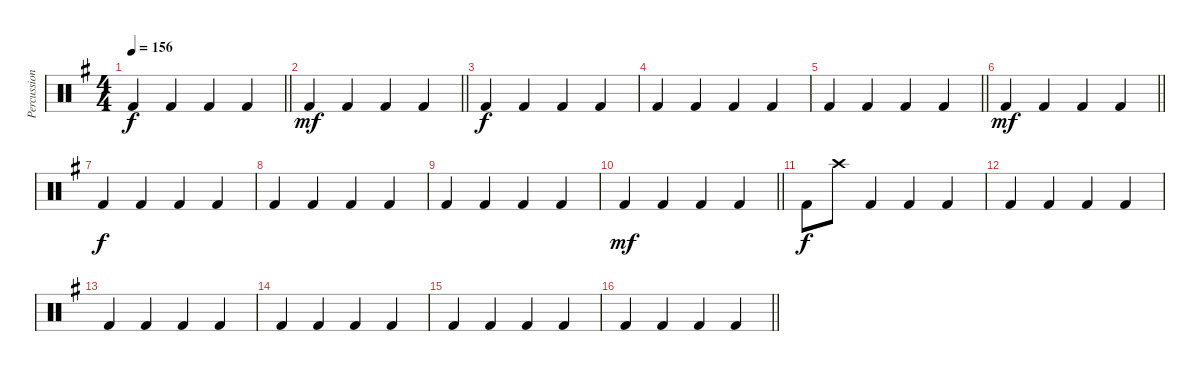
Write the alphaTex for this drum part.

\track ("Percussion" "Percussion") {instrument percussion}
\staff {score}
\articulation defaults
\ts (4 4)
\tempo 156
\clef neutral
\barLineRight lightlight
\ks g "Kick (hit) 2".4{dy f} "Kick (hit) 2".4 "Kick (hit) 2".4 "Kick (hit) 2".4
|
\barLineRight lightlight "Kick (hit) 2".4{dy mf} "Kick (hit) 2".4 "Kick (hit) 2".4 "Kick (hit) 2".4
|
"Kick (hit) 2".4{dy f} "Kick (hit) 2".4 "Kick (hit) 2".4 "Kick (hit) 2".4 |
"Kick (hit) 2".4 "Kick (hit) 2".4 "Kick (hit) 2".4 "Kick (hit) 2".4 |
\barLineRight lightlight "Kick (hit) 2".4 "Kick (hit) 2".4 "Kick (hit) 2".4 "Kick (hit) 2".4
|
\barLineRight lightlight "Kick (hit) 2".4{dy mf} "Kick (hit) 2".4 "Kick (hit) 2".4 "Kick (hit) 2".4
|
"Kick (hit) 2".4{dy f} "Kick (hit) 2".4 "Kick (hit) 2".4 "Kick (hit) 2".4 |
"Kick (hit) 2".4 "Kick (hit) 2".4 "Kick (hit) 2".4 "Kick (hit) 2".4 |
"Kick (hit) 2".4 "Kick (hit) 2".4 "Kick (hit) 2".4 "Kick (hit) 2".4 |
\barLineRight lightlight "Kick (hit) 2".4{dy mf} "Kick (hit) 2".4 "Kick (hit) 2".4 "Kick (hit) 2".4
|
"Kick (hit) 2".8{dy f} "Crash high (hit)".8 "Kick (hit) 2".4 "Kick (hit) 2".4 "Kick (hit) 2".4 |
"Kick (hit) 2".4 "Kick (hit) 2".4 "Kick (hit) 2".4 "Kick (hit) 2".4 |
"Kick (hit) 2".4 "Kick (hit) 2".4 "Kick (hit) 2".4 "Kick (hit) 2".4 |
"Kick (hit) 2".4 "Kick (hit) 2".4 "Kick (hit) 2".4 "Kick (hit) 2".4 |
"Kick (hit) 2".4 "Kick (hit) 2".4 "Kick (hit) 2".4 "Kick (hit) 2".4 |
\barLineRight lightlight "Kick (hit) 2".4 "Kick (hit) 2".4 "Kick (hit) 2".4 "Kick (hit) 2".4
